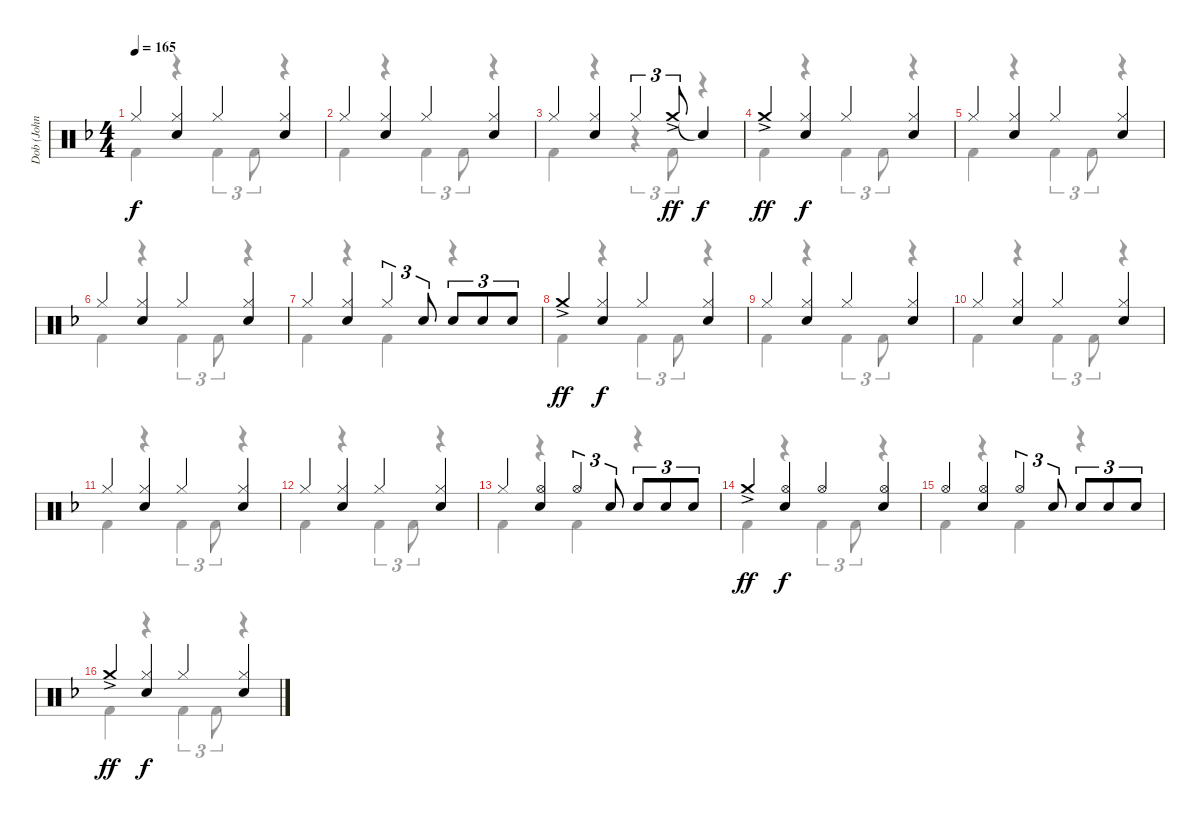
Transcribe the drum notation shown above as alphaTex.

\track ("Dob (John O’Reilly)" "Dob (John ") {instrument percussion}
\staff {score}
\articulation defaults
\voice
\ts (4 4)
\tempo 165
\clef neutral
\ks f "Hi-Hat (closed)".4{dy f}
("Hi-Hat (closed)" "Electric Snare (hit)").4 "Hi-Hat (closed)".4 ("Hi-Hat (closed)" "Electric Snare (hit)").4 |
"Hi-Hat (closed)".4 ("Hi-Hat (closed)" "Electric Snare (hit)").4 "Hi-Hat (closed)".4 ("Hi-Hat (closed)" "Electric Snare (hit)").4 |
"Hi-Hat (closed)".4 ("Hi-Hat (closed)" "Electric Snare (hit)").4 "Hi-Hat (closed)".4{tu (3 2)} "Crash medium (hit)"{ac}.8{tu (3 2) dy ff} "Snare (hit)"{t}.4{dy f} |
"Crash medium (hit)"{ac}.4{dy ff} ("Hi-Hat (closed)" "Electric Snare (hit)").4{dy f} "Hi-Hat (closed)".4 ("Hi-Hat (closed)" "Electric Snare (hit)").4 |
"Hi-Hat (closed)".4 ("Hi-Hat (closed)" "Electric Snare (hit)").4 "Hi-Hat (closed)".4 ("Hi-Hat (closed)" "Electric Snare (hit)").4 |
"Hi-Hat (closed)".4 ("Hi-Hat (closed)" "Electric Snare (hit)").4 "Hi-Hat (closed)".4 ("Hi-Hat (closed)" "Electric Snare (hit)").4 |
"Hi-Hat (closed)".4 ("Hi-Hat (closed)" "Electric Snare (hit)").4 "Hi-Hat (closed)".4{tu (3 2)} "Electric Snare (hit)".8{tu (3 2)} "Electric Snare (hit)".8{tu (3 2)} "Electric Snare (hit)".8{tu (3 2)} "Electric Snare (hit)".8{tu (3 2)} |
"Crash medium (hit)"{ac}.4{dy ff} ("Hi-Hat (closed)" "Electric Snare (hit)").4{dy f} "Hi-Hat (closed)".4 ("Hi-Hat (closed)" "Electric Snare (hit)").4 |
"Hi-Hat (closed)".4 ("Hi-Hat (closed)" "Electric Snare (hit)").4 "Hi-Hat (closed)".4 ("Hi-Hat (closed)" "Electric Snare (hit)").4 |
"Hi-Hat (closed)".4 ("Hi-Hat (closed)" "Electric Snare (hit)").4 "Hi-Hat (closed)".4 ("Hi-Hat (closed)" "Electric Snare (hit)").4 |
"Hi-Hat (closed)".4 ("Hi-Hat (closed)" "Electric Snare (hit)").4 "Hi-Hat (closed)".4 ("Hi-Hat (closed)" "Electric Snare (hit)").4 |
"Hi-Hat (closed)".4 ("Hi-Hat (closed)" "Electric Snare (hit)").4 "Hi-Hat (closed)".4 ("Hi-Hat (closed)" "Electric Snare (hit)").4 |
"Hi-Hat (closed)".4 ("Hi-Hat (open)" "Electric Snare (hit)").4 "Hi-Hat (open)".4{tu (3 2)} "Electric Snare (hit)".8{tu (3 2)} "Electric Snare (hit)".8{tu (3 2)} "Electric Snare (hit)".8{tu (3 2)} "Electric Snare (hit)".8{tu (3 2)} |
"Crash medium (hit)"{ac}.4{dy ff} ("Hi-Hat (open)" "Electric Snare (hit)").4{dy f} "Hi-Hat (open)".4 ("Hi-Hat (open)" "Electric Snare (hit)").4 |
"Hi-Hat (open)".4 ("Hi-Hat (open)" "Electric Snare (hit)").4 "Hi-Hat (open)".4{tu (3 2)} "Electric Snare (hit)".8{tu (3 2)} "Electric Snare (hit)".8{tu (3 2)} "Electric Snare (hit)".8{tu (3 2)} "Electric Snare (hit)".8{tu (3 2)} |
"Crash medium (hit)"{ac}.4{dy ff} ("Hi-Hat (closed)" "Electric Snare (hit)").4{dy f} "Hi-Hat (closed)".4 ("Hi-Hat (closed)" "Electric Snare (hit)").4
\voice
\clef neutral
\ottava regular
\simile none
\ks f "Kick (hit) 2".4{dy f}
r.4 "Kick (hit) 2".4{tu (3 2)} "Kick (hit) 2".8{tu (3 2)} r.4 |
"Kick (hit) 2".4 r.4 "Kick (hit) 2".4{tu (3 2)} "Kick (hit) 2".8{tu (3 2)} r.4 |
"Kick (hit) 2".4 r.4 r.4{tu (3 2)} "Kick (hit) 2".8{tu (3 2)} r.4 |
"Kick (hit) 2".4 r.4 "Kick (hit) 2".4{tu (3 2)} "Kick (hit) 2".8{tu (3 2)} r.4 |
"Kick (hit) 2".4 r.4 "Kick (hit) 2".4{tu (3 2)} "Kick (hit) 2".8{tu (3 2)} r.4 |
"Kick (hit) 2".4 r.4 "Kick (hit) 2".4{tu (3 2)} "Kick (hit) 2".8{tu (3 2)} r.4 |
"Kick (hit) 2".4 r.4 "Kick (hit) 2".4 r.4 |
"Kick (hit) 2".4 r.4 "Kick (hit) 2".4{tu (3 2)} "Kick (hit) 2".8{tu (3 2)} r.4 |
"Kick (hit) 2".4 r.4 "Kick (hit) 2".4{tu (3 2)} "Kick (hit) 2".8{tu (3 2)} r.4 |
"Kick (hit) 2".4 r.4 "Kick (hit) 2".4{tu (3 2)} "Kick (hit) 2".8{tu (3 2)} r.4 |
"Kick (hit) 2".4 r.4 "Kick (hit) 2".4{tu (3 2)} "Kick (hit) 2".8{tu (3 2)} r.4 |
"Kick (hit) 2".4 r.4 "Kick (hit) 2".4{tu (3 2)} "Kick (hit) 2".8{tu (3 2)} r.4 |
"Kick (hit) 2".4 r.4 "Kick (hit) 2".4 r.4 |
"Kick (hit) 2".4 r.4 "Kick (hit) 2".4{tu (3 2)} "Kick (hit) 2".8{tu (3 2)} r.4 |
"Kick (hit) 2".4 r.4 "Kick (hit) 2".4 r.4 |
"Kick (hit) 2".4 r.4 "Kick (hit) 2".4{tu (3 2)} "Kick (hit) 2".8{tu (3 2)} r.4
